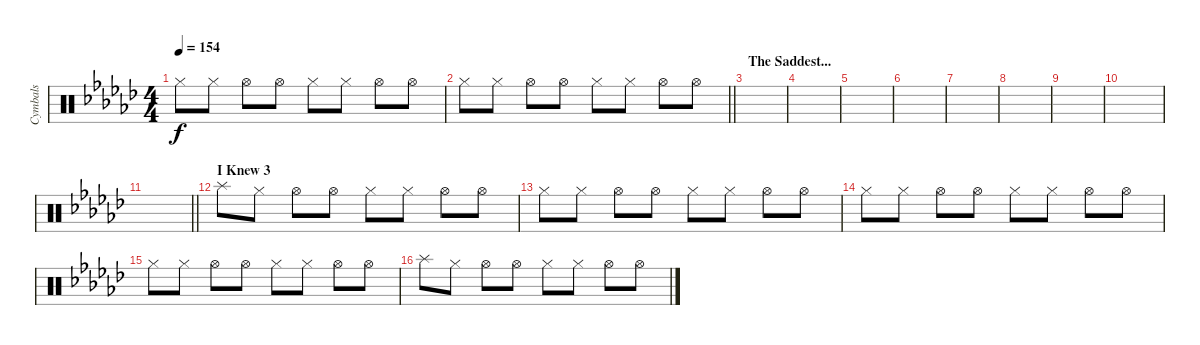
\track ("Cymbals" "Cymbals") {instrument percussion}
\staff {score}
\articulation defaults
\ts (4 4)
\tempo 154
\clef neutral
\ks gb "Hi-Hat (closed)".8{dy f} "Hi-Hat (closed)".8 "Hi-Hat (open)".8 "Hi-Hat (open)".8 "Hi-Hat (closed)".8 "Hi-Hat (closed)".8 "Hi-Hat (open)".8 "Hi-Hat (open)".8
|
\barLineRight lightlight "Hi-Hat (closed)".8 "Hi-Hat (closed)".8 "Hi-Hat (open)".8 "Hi-Hat (open)".8 "Hi-Hat (closed)".8 "Hi-Hat (closed)".8 "Hi-Hat (open)".8 "Hi-Hat (open)".8
|
\section ("" "The Saddest...")
|
|
|
|
|
|
|
|
\barLineRight lightlight
|
\section ("" "I Knew 3")
"Splash (hit)".8 "Hi-Hat (closed)".8 "Hi-Hat (open)".8 "Hi-Hat (open)".8 "Hi-Hat (closed)".8 "Hi-Hat (closed)".8 "Hi-Hat (open)".8 "Hi-Hat (open)".8 |
"Hi-Hat (closed)".8 "Hi-Hat (closed)".8 "Hi-Hat (open)".8 "Hi-Hat (open)".8 "Hi-Hat (closed)".8 "Hi-Hat (closed)".8 "Hi-Hat (open)".8 "Hi-Hat (open)".8 |
"Hi-Hat (closed)".8 "Hi-Hat (closed)".8 "Hi-Hat (open)".8 "Hi-Hat (open)".8 "Hi-Hat (closed)".8 "Hi-Hat (closed)".8 "Hi-Hat (open)".8 "Hi-Hat (open)".8 |
"Hi-Hat (closed)".8 "Hi-Hat (closed)".8 "Hi-Hat (open)".8 "Hi-Hat (open)".8 "Hi-Hat (closed)".8 "Hi-Hat (closed)".8 "Hi-Hat (open)".8 "Hi-Hat (open)".8 |
"Splash (hit)".8 "Hi-Hat (closed)".8 "Hi-Hat (open)".8 "Hi-Hat (open)".8 "Hi-Hat (closed)".8 "Hi-Hat (closed)".8 "Hi-Hat (open)".8 "Hi-Hat (open)".8
